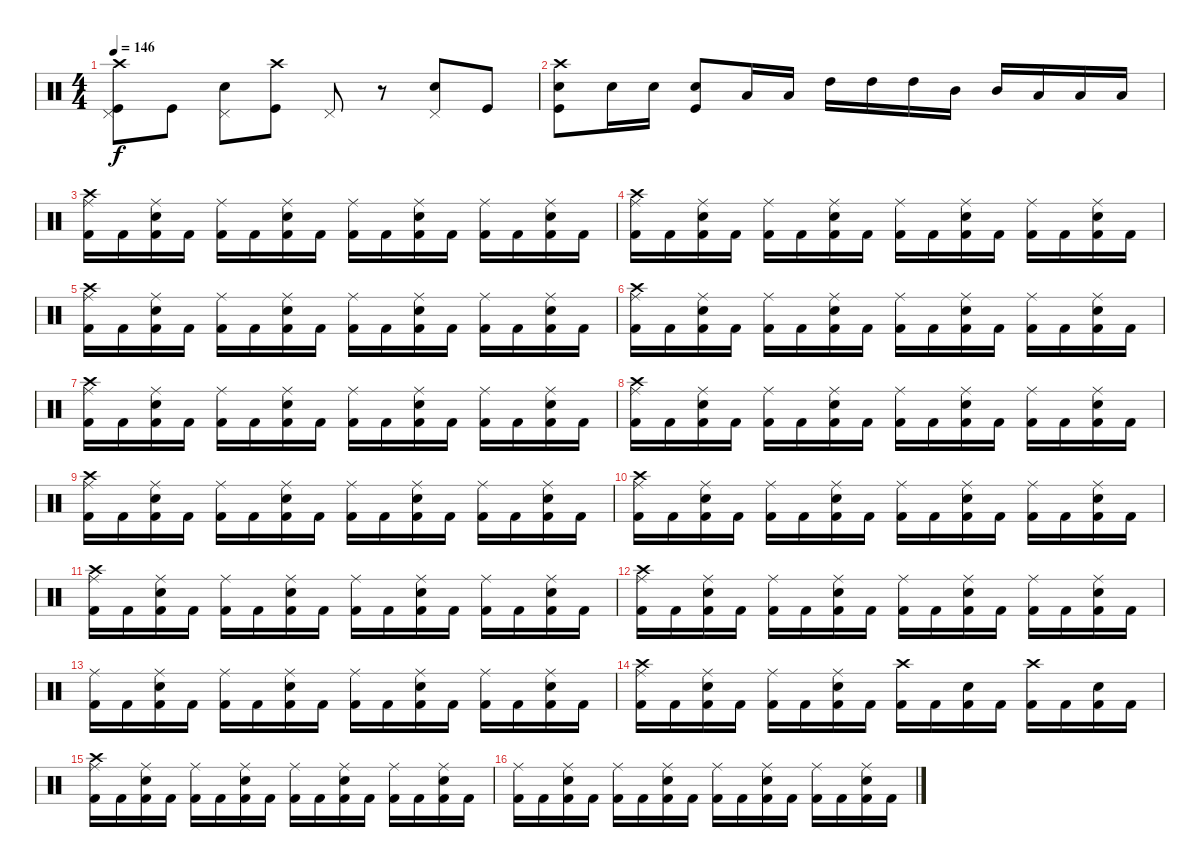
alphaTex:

\track "" {instrument percussion}
\staff {score}
\articulation defaults
\ts (4 4)
\tempo 146
\clef neutral
\ks c
("Crash high (hit)" "Pedal Hi-Hat (hit)" "Kick (hit)").8{dy f} "Kick (hit)".8 ("Pedal Hi-Hat (hit)" "Snare (hit) 2").8 ("Crash high (hit)" "Kick (hit)").8 "Pedal Hi-Hat (hit)".8 r.8 ("Pedal Hi-Hat (hit)" "Snare (hit) 2").8 "Kick (hit)".8 |
("Crash high (hit)" "Kick (hit)" "Snare (hit) 2").8 "Snare (hit) 2".16 "Snare (hit) 2".16 ("Snare (hit) 2" "Kick (hit)").8 "Low Tom (hit)".16 "Low Tom (hit)".16 "High Tom (hit)".16 "High Tom (hit)".16 "High Tom (hit)".16 "Mid Tom (hit)".16 "Mid Tom (hit)".16 "Low Tom (hit)".16 "Low Tom (hit)".16 "Low Tom (hit)".16 |
("Crash high (hit)" "Ride (middle)" "Kick (hit) 2").16 "Kick (hit) 2".16 ("Electric Snare (hit)" "Ride (middle)" "Kick (hit) 2").16 "Kick (hit) 2".16 ("Ride (middle)" "Kick (hit) 2").16 "Kick (hit) 2".16 ("Electric Snare (hit)" "Ride (middle)" "Kick (hit) 2").16 "Kick (hit) 2".16 ("Ride (middle)" "Kick (hit) 2").16 "Kick (hit) 2".16 ("Electric Snare (hit)" "Ride (middle)" "Kick (hit) 2").16 "Kick (hit) 2".16 ("Ride (middle)" "Kick (hit) 2").16 "Kick (hit) 2".16 ("Electric Snare (hit)" "Ride (middle)" "Kick (hit) 2").16 "Kick (hit) 2".16 |
("Crash high (hit)" "Ride (middle)" "Kick (hit) 2").16 "Kick (hit) 2".16 ("Electric Snare (hit)" "Ride (middle)" "Kick (hit) 2").16 "Kick (hit) 2".16 ("Ride (middle)" "Kick (hit) 2").16 "Kick (hit) 2".16 ("Electric Snare (hit)" "Ride (middle)" "Kick (hit) 2").16 "Kick (hit) 2".16 ("Ride (middle)" "Kick (hit) 2").16 "Kick (hit) 2".16 ("Electric Snare (hit)" "Ride (middle)" "Kick (hit) 2").16 "Kick (hit) 2".16 ("Ride (middle)" "Kick (hit) 2").16 "Kick (hit) 2".16 ("Electric Snare (hit)" "Ride (middle)" "Kick (hit) 2").16 "Kick (hit) 2".16 |
("Crash high (hit)" "Ride (middle)" "Kick (hit) 2").16 "Kick (hit) 2".16 ("Electric Snare (hit)" "Ride (middle)" "Kick (hit) 2").16 "Kick (hit) 2".16 ("Ride (middle)" "Kick (hit) 2").16 "Kick (hit) 2".16 ("Electric Snare (hit)" "Ride (middle)" "Kick (hit) 2").16 "Kick (hit) 2".16 ("Ride (middle)" "Kick (hit) 2").16 "Kick (hit) 2".16 ("Electric Snare (hit)" "Ride (middle)" "Kick (hit) 2").16 "Kick (hit) 2".16 ("Ride (middle)" "Kick (hit) 2").16 "Kick (hit) 2".16 ("Electric Snare (hit)" "Ride (middle)" "Kick (hit) 2").16 "Kick (hit) 2".16 |
("Crash high (hit)" "Ride (middle)" "Kick (hit) 2").16 "Kick (hit) 2".16 ("Electric Snare (hit)" "Ride (middle)" "Kick (hit) 2").16 "Kick (hit) 2".16 ("Ride (middle)" "Kick (hit) 2").16 "Kick (hit) 2".16 ("Electric Snare (hit)" "Ride (middle)" "Kick (hit) 2").16 "Kick (hit) 2".16 ("Ride (middle)" "Kick (hit) 2").16 "Kick (hit) 2".16 ("Electric Snare (hit)" "Ride (middle)" "Kick (hit) 2").16 "Kick (hit) 2".16 ("Ride (middle)" "Kick (hit) 2").16 "Kick (hit) 2".16 ("Electric Snare (hit)" "Ride (middle)" "Kick (hit) 2").16 "Kick (hit) 2".16 |
("Crash high (hit)" "Ride (middle)" "Kick (hit) 2").16 "Kick (hit) 2".16 ("Electric Snare (hit)" "Ride (middle)" "Kick (hit) 2").16 "Kick (hit) 2".16 ("Ride (middle)" "Kick (hit) 2").16 "Kick (hit) 2".16 ("Electric Snare (hit)" "Ride (middle)" "Kick (hit) 2").16 "Kick (hit) 2".16 ("Ride (middle)" "Kick (hit) 2").16 "Kick (hit) 2".16 ("Electric Snare (hit)" "Ride (middle)" "Kick (hit) 2").16 "Kick (hit) 2".16 ("Ride (middle)" "Kick (hit) 2").16 "Kick (hit) 2".16 ("Electric Snare (hit)" "Ride (middle)" "Kick (hit) 2").16 "Kick (hit) 2".16 |
("Crash high (hit)" "Ride (middle)" "Kick (hit) 2").16 "Kick (hit) 2".16 ("Electric Snare (hit)" "Ride (middle)" "Kick (hit) 2").16 "Kick (hit) 2".16 ("Ride (middle)" "Kick (hit) 2").16 "Kick (hit) 2".16 ("Electric Snare (hit)" "Ride (middle)" "Kick (hit) 2").16 "Kick (hit) 2".16 ("Ride (middle)" "Kick (hit) 2").16 "Kick (hit) 2".16 ("Electric Snare (hit)" "Ride (middle)" "Kick (hit) 2").16 "Kick (hit) 2".16 ("Ride (middle)" "Kick (hit) 2").16 "Kick (hit) 2".16 ("Electric Snare (hit)" "Ride (middle)" "Kick (hit) 2").16 "Kick (hit) 2".16 |
("Crash high (hit)" "Ride (middle)" "Kick (hit) 2").16 "Kick (hit) 2".16 ("Electric Snare (hit)" "Ride (middle)" "Kick (hit) 2").16 "Kick (hit) 2".16 ("Ride (middle)" "Kick (hit) 2").16 "Kick (hit) 2".16 ("Electric Snare (hit)" "Ride (middle)" "Kick (hit) 2").16 "Kick (hit) 2".16 ("Ride (middle)" "Kick (hit) 2").16 "Kick (hit) 2".16 ("Electric Snare (hit)" "Ride (middle)" "Kick (hit) 2").16 "Kick (hit) 2".16 ("Ride (middle)" "Kick (hit) 2").16 "Kick (hit) 2".16 ("Electric Snare (hit)" "Ride (middle)" "Kick (hit) 2").16 "Kick (hit) 2".16 |
("Crash high (hit)" "Ride (middle)" "Kick (hit) 2").16 "Kick (hit) 2".16 ("Electric Snare (hit)" "Ride (middle)" "Kick (hit) 2").16 "Kick (hit) 2".16 ("Ride (middle)" "Kick (hit) 2").16 "Kick (hit) 2".16 ("Electric Snare (hit)" "Ride (middle)" "Kick (hit) 2").16 "Kick (hit) 2".16 ("Ride (middle)" "Kick (hit) 2").16 "Kick (hit) 2".16 ("Electric Snare (hit)" "Ride (middle)" "Kick (hit) 2").16 "Kick (hit) 2".16 ("Ride (middle)" "Kick (hit) 2").16 "Kick (hit) 2".16 ("Electric Snare (hit)" "Ride (middle)" "Kick (hit) 2").16 "Kick (hit) 2".16 |
("Crash high (hit)" "Ride (middle)" "Kick (hit) 2").16 "Kick (hit) 2".16 ("Electric Snare (hit)" "Ride (middle)" "Kick (hit) 2").16 "Kick (hit) 2".16 ("Ride (middle)" "Kick (hit) 2").16 "Kick (hit) 2".16 ("Electric Snare (hit)" "Ride (middle)" "Kick (hit) 2").16 "Kick (hit) 2".16 ("Ride (middle)" "Kick (hit) 2").16 "Kick (hit) 2".16 ("Electric Snare (hit)" "Ride (middle)" "Kick (hit) 2").16 "Kick (hit) 2".16 ("Ride (middle)" "Kick (hit) 2").16 "Kick (hit) 2".16 ("Electric Snare (hit)" "Ride (middle)" "Kick (hit) 2").16 "Kick (hit) 2".16 |
("Crash high (hit)" "Ride (middle)" "Kick (hit) 2").16 "Kick (hit) 2".16 ("Electric Snare (hit)" "Ride (middle)" "Kick (hit) 2").16 "Kick (hit) 2".16 ("Ride (middle)" "Kick (hit) 2").16 "Kick (hit) 2".16 ("Electric Snare (hit)" "Ride (middle)" "Kick (hit) 2").16 "Kick (hit) 2".16 ("Ride (middle)" "Kick (hit) 2").16 "Kick (hit) 2".16 ("Electric Snare (hit)" "Ride (middle)" "Kick (hit) 2").16 "Kick (hit) 2".16 ("Ride (middle)" "Kick (hit) 2").16 "Kick (hit) 2".16 ("Electric Snare (hit)" "Ride (middle)" "Kick (hit) 2").16 "Kick (hit) 2".16 |
("Ride (middle)" "Kick (hit) 2").16 "Kick (hit) 2".16 ("Electric Snare (hit)" "Ride (middle)" "Kick (hit) 2").16 "Kick (hit) 2".16 ("Ride (middle)" "Kick (hit) 2").16 "Kick (hit) 2".16 ("Electric Snare (hit)" "Ride (middle)" "Kick (hit) 2").16 "Kick (hit) 2".16 ("Ride (middle)" "Kick (hit) 2").16 "Kick (hit) 2".16 ("Electric Snare (hit)" "Ride (middle)" "Kick (hit) 2").16 "Kick (hit) 2".16 ("Ride (middle)" "Kick (hit) 2").16 "Kick (hit) 2".16 ("Electric Snare (hit)" "Ride (middle)" "Kick (hit) 2").16 "Kick (hit) 2".16 |
("Crash high (hit)" "Ride (middle)" "Kick (hit) 2").16 "Kick (hit) 2".16 ("Electric Snare (hit)" "Ride (middle)" "Kick (hit) 2").16 "Kick (hit) 2".16 ("Ride (middle)" "Kick (hit) 2").16 "Kick (hit) 2".16 ("Electric Snare (hit)" "Ride (middle)" "Kick (hit) 2").16 "Kick (hit) 2".16 ("Kick (hit) 2" "Crash high (hit)").16 "Kick (hit) 2".16 ("Electric Snare (hit)" "Kick (hit) 2").16 "Kick (hit) 2".16 ("Kick (hit) 2" "Crash high (hit)").16 "Kick (hit) 2".16 ("Electric Snare (hit)" "Kick (hit) 2").16 "Kick (hit) 2".16 |
("Crash high (hit)" "Ride (middle)" "Kick (hit) 2").16 "Kick (hit) 2".16 ("Electric Snare (hit)" "Ride (middle)" "Kick (hit) 2").16 "Kick (hit) 2".16 ("Ride (middle)" "Kick (hit) 2").16 "Kick (hit) 2".16 ("Electric Snare (hit)" "Ride (middle)" "Kick (hit) 2").16 "Kick (hit) 2".16 ("Ride (middle)" "Kick (hit) 2").16 "Kick (hit) 2".16 ("Electric Snare (hit)" "Ride (middle)" "Kick (hit) 2").16 "Kick (hit) 2".16 ("Ride (middle)" "Kick (hit) 2").16 "Kick (hit) 2".16 ("Electric Snare (hit)" "Ride (middle)" "Kick (hit) 2").16 "Kick (hit) 2".16 |
("Ride (middle)" "Kick (hit) 2").16 "Kick (hit) 2".16 ("Electric Snare (hit)" "Ride (middle)" "Kick (hit) 2").16 "Kick (hit) 2".16 ("Ride (middle)" "Kick (hit) 2").16 "Kick (hit) 2".16 ("Electric Snare (hit)" "Ride (middle)" "Kick (hit) 2").16 "Kick (hit) 2".16 ("Ride (middle)" "Kick (hit) 2").16 "Kick (hit) 2".16 ("Electric Snare (hit)" "Ride (middle)" "Kick (hit) 2").16 "Kick (hit) 2".16 ("Ride (middle)" "Kick (hit) 2").16 "Kick (hit) 2".16 ("Electric Snare (hit)" "Ride (middle)" "Kick (hit) 2").16 "Kick (hit) 2".16
